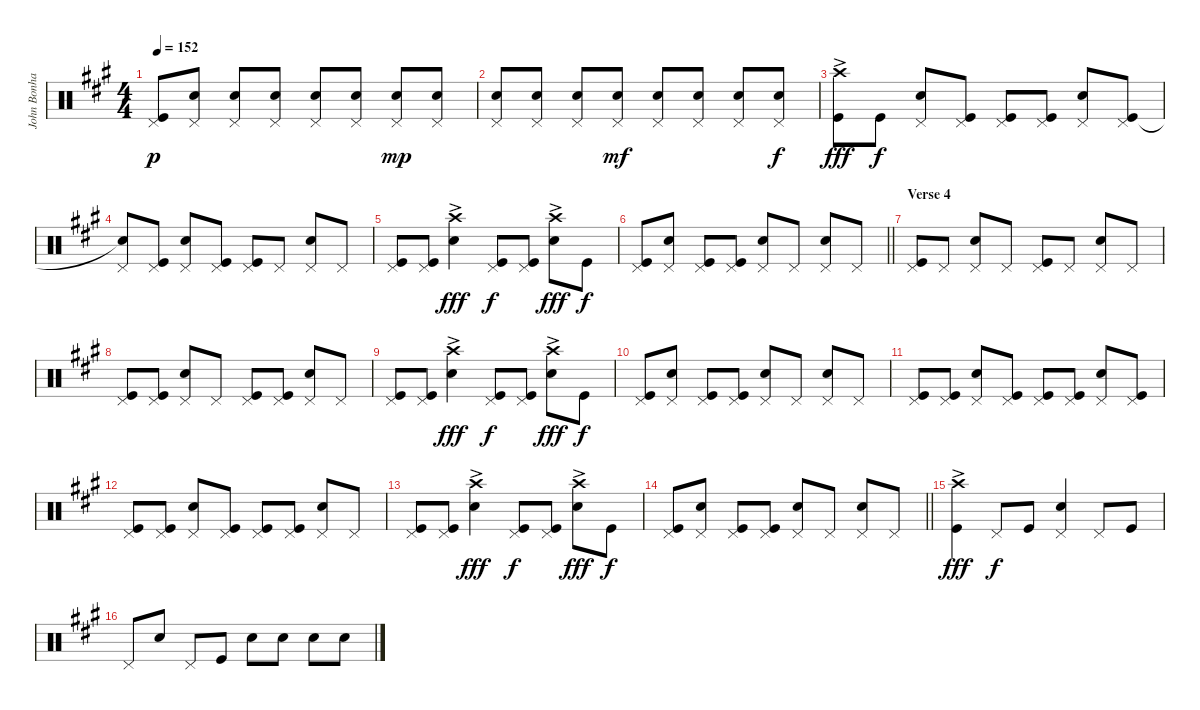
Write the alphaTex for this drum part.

\track ("John Bonham" "John Bonha") {instrument percussion}
\staff {score}
\articulation defaults
\ts (4 4)
\tempo 152
\clef neutral
\ks a
("Pedal Hi-Hat (hit)" "Kick (hit)").8{dy p} ("Pedal Hi-Hat (hit)" "Snare (hit) 2").8 ("Pedal Hi-Hat (hit)" "Snare (hit) 2").8 ("Pedal Hi-Hat (hit)" "Snare (hit) 2").8 ("Pedal Hi-Hat (hit)" "Snare (hit) 2").8 ("Pedal Hi-Hat (hit)" "Snare (hit) 2").8 ("Pedal Hi-Hat (hit)" "Snare (hit) 2").8{dy mp} ("Pedal Hi-Hat (hit)" "Snare (hit) 2").8 |
("Pedal Hi-Hat (hit)" "Snare (hit) 2").8 ("Pedal Hi-Hat (hit)" "Snare (hit) 2").8 ("Pedal Hi-Hat (hit)" "Snare (hit) 2").8 ("Pedal Hi-Hat (hit)" "Snare (hit) 2").8{dy mf} ("Pedal Hi-Hat (hit)" "Snare (hit) 2").8 ("Pedal Hi-Hat (hit)" "Snare (hit) 2").8 ("Pedal Hi-Hat (hit)" "Snare (hit) 2").8 ("Pedal Hi-Hat (hit)" "Snare (hit) 2").8{dy f} |
("Crash high (hit)"{ac} "Kick (hit)").8{dy fff} "Kick (hit)".8{dy f} ("Pedal Hi-Hat (hit)" "Snare (hit) 2").8 ("Pedal Hi-Hat (hit)" "Kick (hit)").8 ("Pedal Hi-Hat (hit)" "Kick (hit)").8 ("Pedal Hi-Hat (hit)" "Kick (hit)").8 ("Pedal Hi-Hat (hit)" "Snare (hit) 2").8 ("Pedal Hi-Hat (hit)" "Kick (hit)").8 |
("Pedal Hi-Hat (hit)" "Snare (hit)"{t}).8 ("Pedal Hi-Hat (hit)" "Kick (hit)").8 ("Pedal Hi-Hat (hit)" "Snare (hit) 2").8 ("Pedal Hi-Hat (hit)" "Kick (hit)").8 ("Pedal Hi-Hat (hit)" "Kick (hit)").8 "Pedal Hi-Hat (hit)".8 ("Pedal Hi-Hat (hit)" "Snare (hit) 2").8 "Pedal Hi-Hat (hit)".8 |
("Pedal Hi-Hat (hit)" "Kick (hit)").8 ("Pedal Hi-Hat (hit)" "Kick (hit)").8 ("Crash high (hit)"{ac} "Snare (hit) 2").4{dy fff} ("Pedal Hi-Hat (hit)" "Kick (hit)").8{dy f} ("Pedal Hi-Hat (hit)" "Kick (hit)").8 ("Crash high (hit)"{ac} "Snare (hit) 2").8{dy fff} "Kick (hit)".8{dy f} |
\barLineRight lightlight
("Pedal Hi-Hat (hit)" "Kick (hit)").8 ("Pedal Hi-Hat (hit)" "Snare (hit) 2").8 ("Pedal Hi-Hat (hit)" "Kick (hit)").8 ("Pedal Hi-Hat (hit)" "Kick (hit)").8 ("Pedal Hi-Hat (hit)" "Snare (hit) 2").8 "Pedal Hi-Hat (hit)".8 ("Pedal Hi-Hat (hit)" "Snare (hit) 2").8 "Pedal Hi-Hat (hit)".8 |
\section ("" "Verse 4")
("Pedal Hi-Hat (hit)" "Kick (hit)").8 "Pedal Hi-Hat (hit)".8 ("Pedal Hi-Hat (hit)" "Snare (hit) 2").8 "Pedal Hi-Hat (hit)".8 ("Pedal Hi-Hat (hit)" "Kick (hit)").8 "Pedal Hi-Hat (hit)".8 ("Pedal Hi-Hat (hit)" "Snare (hit) 2").8 "Pedal Hi-Hat (hit)".8 |
("Pedal Hi-Hat (hit)" "Kick (hit)").8 ("Pedal Hi-Hat (hit)" "Kick (hit)").8 ("Pedal Hi-Hat (hit)" "Snare (hit) 2").8 "Pedal Hi-Hat (hit)".8 ("Pedal Hi-Hat (hit)" "Kick (hit)").8 ("Pedal Hi-Hat (hit)" "Kick (hit)").8 ("Pedal Hi-Hat (hit)" "Snare (hit) 2").8 "Pedal Hi-Hat (hit)".8 |
("Pedal Hi-Hat (hit)" "Kick (hit)").8 ("Pedal Hi-Hat (hit)" "Kick (hit)").8 ("Crash high (hit)"{ac} "Snare (hit) 2").4{dy fff} ("Pedal Hi-Hat (hit)" "Kick (hit)").8{dy f} ("Pedal Hi-Hat (hit)" "Kick (hit)").8 ("Crash high (hit)"{ac} "Snare (hit) 2").8{dy fff} "Kick (hit)".8{dy f} |
("Pedal Hi-Hat (hit)" "Kick (hit)").8 ("Pedal Hi-Hat (hit)" "Snare (hit) 2").8 ("Pedal Hi-Hat (hit)" "Kick (hit)").8 ("Pedal Hi-Hat (hit)" "Kick (hit)").8 ("Pedal Hi-Hat (hit)" "Snare (hit) 2").8 "Pedal Hi-Hat (hit)".8 ("Pedal Hi-Hat (hit)" "Snare (hit) 2").8 "Pedal Hi-Hat (hit)".8 |
("Pedal Hi-Hat (hit)" "Kick (hit)").8 ("Pedal Hi-Hat (hit)" "Kick (hit)").8 ("Pedal Hi-Hat (hit)" "Snare (hit) 2").8 ("Pedal Hi-Hat (hit)" "Kick (hit)").8 ("Pedal Hi-Hat (hit)" "Kick (hit)").8 ("Pedal Hi-Hat (hit)" "Kick (hit)").8 ("Pedal Hi-Hat (hit)" "Snare (hit) 2").8 ("Pedal Hi-Hat (hit)" "Kick (hit)").8 |
("Pedal Hi-Hat (hit)" "Kick (hit)").8 ("Pedal Hi-Hat (hit)" "Kick (hit)").8 ("Pedal Hi-Hat (hit)" "Snare (hit) 2").8 ("Pedal Hi-Hat (hit)" "Kick (hit)").8 ("Pedal Hi-Hat (hit)" "Kick (hit)").8 ("Pedal Hi-Hat (hit)" "Kick (hit)").8 ("Pedal Hi-Hat (hit)" "Snare (hit) 2").8 "Pedal Hi-Hat (hit)".8 |
("Pedal Hi-Hat (hit)" "Kick (hit)").8 ("Pedal Hi-Hat (hit)" "Kick (hit)").8 ("Crash high (hit)"{ac} "Snare (hit) 2").4{dy fff} ("Pedal Hi-Hat (hit)" "Kick (hit)").8{dy f} ("Pedal Hi-Hat (hit)" "Kick (hit)").8 ("Crash high (hit)"{ac} "Snare (hit) 2").8{dy fff} "Kick (hit)".8{dy f} |
\barLineRight lightlight
("Pedal Hi-Hat (hit)" "Kick (hit)").8 ("Pedal Hi-Hat (hit)" "Snare (hit) 2").8 ("Pedal Hi-Hat (hit)" "Kick (hit)").8 ("Pedal Hi-Hat (hit)" "Kick (hit)").8 ("Pedal Hi-Hat (hit)" "Snare (hit) 2").8 "Pedal Hi-Hat (hit)".8 ("Pedal Hi-Hat (hit)" "Snare (hit) 2").8 "Pedal Hi-Hat (hit)".8 |
("Crash high (hit)"{ac} "Kick (hit)").4{dy fff} "Pedal Hi-Hat (hit)".8{dy f} "Kick (hit)".8 ("Pedal Hi-Hat (hit)" "Snare (hit) 2").4 "Pedal Hi-Hat (hit)".8 "Kick (hit)".8 |
"Pedal Hi-Hat (hit)".8 "Snare (hit) 2".8 "Pedal Hi-Hat (hit)".8 "Kick (hit)".8 "Snare (hit) 2".8 "Snare (hit) 2".8 "Snare (hit) 2".8 "Snare (hit) 2".8
